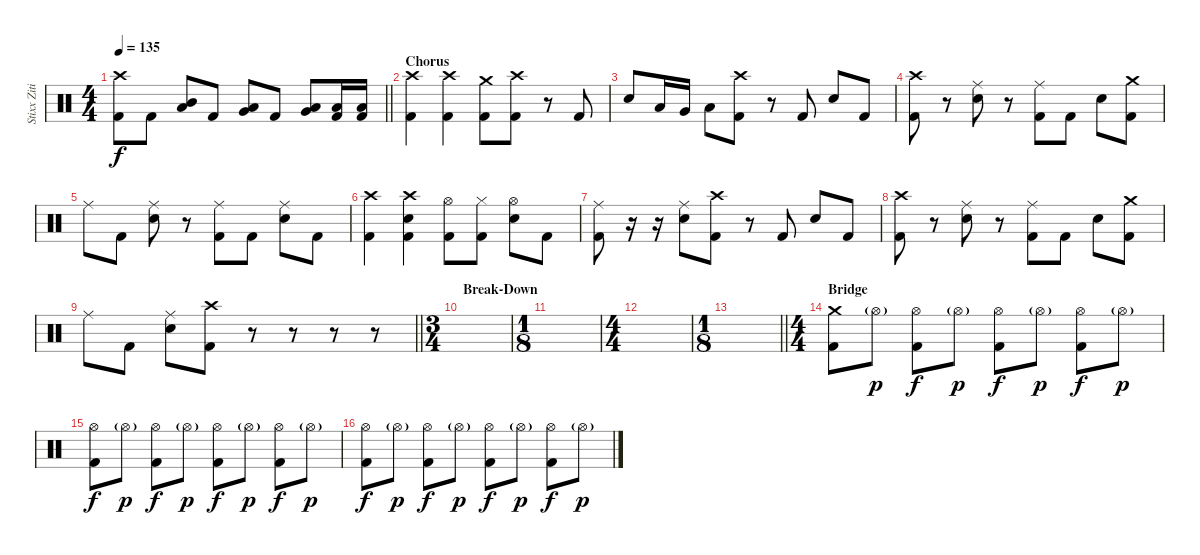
\track ("Stixx Zitinya Drums" "Stixx Ziti") {instrument percussion}
\staff {score}
\articulation defaults
\ts (4 4)
\tempo 135
\clef neutral
\barLineRight lightlight
\ks c
("Crash high (hit)" "Kick (hit) 2").8{dy f} "Kick (hit) 2".8 ("Mid Tom (hit)" "Low Tom (hit)").8 "Kick (hit) 2".8 ("Low Tom (hit)" "Very Low Tom (hit)").8 "Kick (hit) 2".8 ("Low Floor Tom (hit)" "Very Low Tom (hit)").8 ("Low Floor Tom (hit)" "Kick (hit) 2").16 ("Low Floor Tom (hit)" "Kick (hit) 2").16 |
\section ("" "Chorus")
("Crash high (hit)" "Kick (hit) 2").4 ("Crash high (hit)" "Kick (hit) 2").4 ("Crash medium (hit)" "Kick (hit) 2").8 ("Crash high (hit)" "Kick (hit) 2").8 r.8 "Kick (hit) 2".8 |
"Snare (hit) 2".8 "Low Tom (hit)".16 "Very Low Tom (hit)".16 "Low Floor Tom (hit)".8 ("Crash high (hit)" "Kick (hit) 2").8 r.8 "Kick (hit) 2".8 "Snare (hit) 2".8 "Kick (hit) 2".8 |
("Crash high (hit)" "Kick (hit) 2").8 r.8 ("Ride (middle)" "Snare (hit) 2").8 r.8 ("Ride (middle)" "Kick (hit) 2").8 "Kick (hit) 2".8 "Snare (hit) 2".8 ("Crash medium (hit)" "Kick (hit) 2").8 |
"Ride (middle)".8 "Kick (hit) 2".8 ("Ride (middle)" "Snare (hit) 2").8 r.8 ("Ride (middle)" "Kick (hit) 2").8 "Kick (hit) 2".8 ("Ride (middle)" "Snare (hit) 2").8 "Kick (hit) 2".8 |
("Crash high (hit)" "Kick (hit) 2").4 ("Crash high (hit)" "Snare (hit) 2" "Kick (hit) 2").4 ("Hi-Hat (open)" "Kick (hit) 2").8 ("Hi-Hat (closed)" "Kick (hit) 2").8 ("Hi-Hat (open)" "Snare (hit) 2").8 "Kick (hit) 2".8 |
("Ride (middle)" "Kick (hit) 2").8 r.16 r.16 ("Ride (middle)" "Snare (hit) 2").8 ("Crash high (hit)" "Kick (hit) 2").8 r.8 "Kick (hit) 2".8 "Snare (hit) 2".8 "Kick (hit) 2".8 |
("Crash high (hit)" "Kick (hit) 2").8 r.8 ("Ride (middle)" "Snare (hit) 2").8 r.8 ("Ride (middle)" "Kick (hit) 2").8 "Kick (hit) 2".8 "Snare (hit) 2".8 ("Crash medium (hit)" "Kick (hit) 2").8 |
\barLineRight lightlight "Ride (middle)".8 "Kick (hit) 2".8
("Ride (middle)" "Snare (hit) 2").8 ("Crash high (hit)" "Kick (hit) 2").8 r.8 r.8 r.8 r.8 |
\ts (3 4)
\section ("" "Break-Down")
|
\ts (1 8)
|
\ts (4 4)
|
\ts (1 8)
\barLineRight lightlight
|
\ts (4 4)
\section ("" "Bridge")
("Crash medium (hit)" "Kick (hit) 2").8 "Hi-Hat (open)"{g}.8{dy p} ("Hi-Hat (open)" "Kick (hit) 2").8{dy f} "Hi-Hat (open)"{g}.8{dy p} ("Hi-Hat (open)" "Kick (hit) 2").8{dy f} "Hi-Hat (open)"{g}.8{dy p} ("Hi-Hat (open)" "Kick (hit) 2").8{dy f} "Hi-Hat (open)"{g}.8{dy p} |
("Hi-Hat (open)" "Kick (hit) 2").8{dy f} "Hi-Hat (open)"{g}.8{dy p} ("Hi-Hat (open)" "Kick (hit) 2").8{dy f} "Hi-Hat (open)"{g}.8{dy p} ("Hi-Hat (open)" "Kick (hit) 2").8{dy f} "Hi-Hat (open)"{g}.8{dy p} ("Hi-Hat (open)" "Kick (hit) 2").8{dy f} "Hi-Hat (open)"{g}.8{dy p} |
("Hi-Hat (open)" "Kick (hit) 2").8{dy f} "Hi-Hat (open)"{g}.8{dy p} ("Hi-Hat (open)" "Kick (hit) 2").8{dy f} "Hi-Hat (open)"{g}.8{dy p} ("Hi-Hat (open)" "Kick (hit) 2").8{dy f} "Hi-Hat (open)"{g}.8{dy p} ("Hi-Hat (open)" "Kick (hit) 2").8{dy f} "Hi-Hat (open)"{g}.8{dy p}
